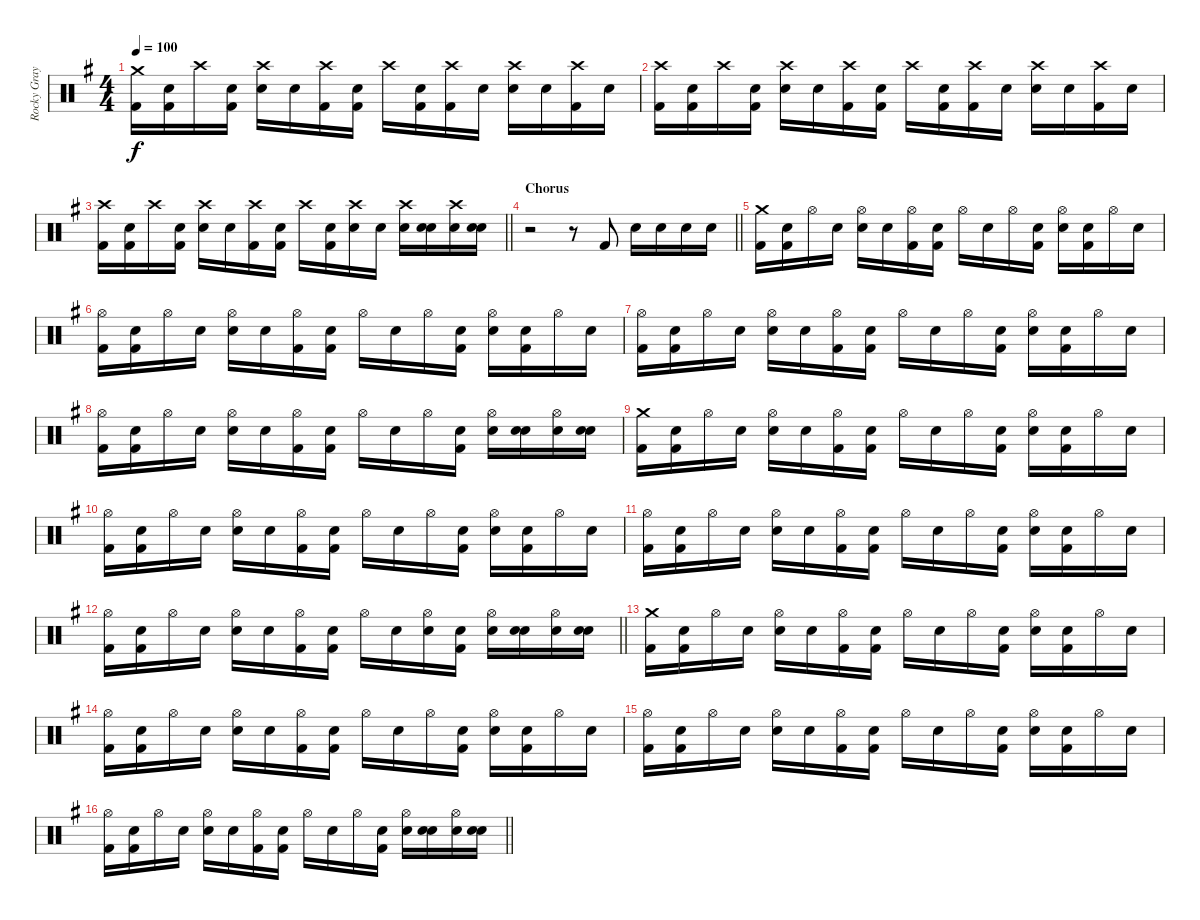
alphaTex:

\track ("Rocky Gray" "Rocky Gray") {instrument percussion}
\staff {score}
\articulation defaults
\ts (4 4)
\tempo 100
\clef neutral
\ks g
("Crash medium (hit)" "Kick (hit) 2").16{dy f} ("Snare (hit)" "Kick (hit) 2").16 "Crash high (hit)".16 ("Snare (hit)" "Kick (hit) 2").16 ("Crash high (hit)" "Electric Snare (hit)").16 "Snare (hit)".16 ("Crash high (hit)" "Kick (hit) 2").16 ("Snare (hit)" "Kick (hit) 2").16 "Crash high (hit)".16 ("Snare (hit)" "Kick (hit) 2").16 ("Crash high (hit)" "Kick (hit) 2").16 "Snare (hit)".16 ("Crash high (hit)" "Electric Snare (hit)").16 "Snare (hit)".16 ("Crash high (hit)" "Kick (hit) 2").16 "Snare (hit)".16 |
("Crash high (hit)" "Kick (hit) 2").16 ("Snare (hit)" "Kick (hit) 2").16 "Crash high (hit)".16 ("Snare (hit)" "Kick (hit) 2").16 ("Crash high (hit)" "Electric Snare (hit)").16 "Snare (hit)".16 ("Crash high (hit)" "Kick (hit) 2").16 ("Snare (hit)" "Kick (hit) 2").16 "Crash high (hit)".16 ("Snare (hit)" "Kick (hit) 2").16 ("Crash high (hit)" "Kick (hit) 2").16 "Snare (hit)".16 ("Crash high (hit)" "Electric Snare (hit)").16 "Snare (hit)".16 ("Crash high (hit)" "Kick (hit) 2").16 "Snare (hit)".16 |
\barLineRight lightlight
("Crash high (hit)" "Kick (hit) 2").16 ("Snare (hit)" "Kick (hit) 2").16 "Crash high (hit)".16 ("Snare (hit)" "Kick (hit) 2").16 ("Crash high (hit)" "Electric Snare (hit)").16 "Snare (hit)".16 ("Crash high (hit)" "Kick (hit) 2").16 ("Snare (hit)" "Kick (hit) 2").16 "Crash high (hit)".16 ("Snare (hit)" "Kick (hit) 2").16 ("Crash high (hit)" "Electric Snare (hit)").16 "Snare (hit)".16 ("Crash high (hit)" "Electric Snare (hit)").16 ("Snare (hit)" "Electric Snare (hit)").16 ("Crash high (hit)" "Electric Snare (hit)").16 ("Snare (hit)" "Electric Snare (hit)").16 |
\section ("" "Chorus")
\barLineRight lightlight
r.2 r.8 "Kick (hit) 2".8 "Electric Snare (hit)".16 "Electric Snare (hit)".16 "Electric Snare (hit)".16 "Electric Snare (hit)".16 |
("Crash medium (hit)" "Kick (hit) 2").16 ("Snare (hit)" "Kick (hit) 2").16 "Hi-Hat (open)".16 "Snare (hit)".16 ("Hi-Hat (open)" "Snare (hit) 2").16 "Snare (hit)".16 ("Hi-Hat (open)" "Kick (hit) 2").16 ("Snare (hit)" "Kick (hit) 2").16 "Hi-Hat (open)".16 "Snare (hit)".16 "Hi-Hat (open)".16 ("Snare (hit)" "Kick (hit) 2").16 ("Hi-Hat (open)" "Snare (hit) 2").16 ("Snare (hit)" "Kick (hit) 2").16 "Hi-Hat (open)".16 "Snare (hit)".16 |
("Hi-Hat (open)" "Kick (hit) 2").16 ("Snare (hit)" "Kick (hit) 2").16 "Hi-Hat (open)".16 "Snare (hit)".16 ("Hi-Hat (open)" "Snare (hit) 2").16 "Snare (hit)".16 ("Hi-Hat (open)" "Kick (hit) 2").16 ("Snare (hit)" "Kick (hit) 2").16 "Hi-Hat (open)".16 "Snare (hit)".16 "Hi-Hat (open)".16 ("Snare (hit)" "Kick (hit) 2").16 ("Hi-Hat (open)" "Snare (hit) 2").16 ("Snare (hit)" "Kick (hit) 2").16 "Hi-Hat (open)".16 "Snare (hit)".16 |
("Hi-Hat (open)" "Kick (hit) 2").16 ("Snare (hit)" "Kick (hit) 2").16 "Hi-Hat (open)".16 "Snare (hit)".16 ("Hi-Hat (open)" "Snare (hit) 2").16 "Snare (hit)".16 ("Hi-Hat (open)" "Kick (hit) 2").16 ("Snare (hit)" "Kick (hit) 2").16 "Hi-Hat (open)".16 "Snare (hit)".16 "Hi-Hat (open)".16 ("Snare (hit)" "Kick (hit) 2").16 ("Hi-Hat (open)" "Snare (hit) 2").16 ("Snare (hit)" "Kick (hit) 2").16 "Hi-Hat (open)".16 "Snare (hit)".16 |
("Hi-Hat (open)" "Kick (hit) 2").16 ("Snare (hit)" "Kick (hit) 2").16 "Hi-Hat (open)".16 "Snare (hit)".16 ("Hi-Hat (open)" "Snare (hit) 2").16 "Snare (hit)".16 ("Hi-Hat (open)" "Kick (hit) 2").16 ("Snare (hit)" "Kick (hit) 2").16 "Hi-Hat (open)".16 "Snare (hit)".16 "Hi-Hat (open)".16 ("Snare (hit)" "Kick (hit) 2").16 ("Hi-Hat (open)" "Snare (hit) 2").16 ("Snare (hit)" "Snare (hit) 2").16 ("Hi-Hat (open)" "Snare (hit) 2").16 ("Snare (hit)" "Snare (hit) 2").16 |
("Crash medium (hit)" "Kick (hit) 2").16 ("Snare (hit)" "Kick (hit) 2").16 "Hi-Hat (open)".16 "Snare (hit)".16 ("Hi-Hat (open)" "Snare (hit) 2").16 "Snare (hit)".16 ("Hi-Hat (open)" "Kick (hit) 2").16 ("Snare (hit)" "Kick (hit) 2").16 "Hi-Hat (open)".16 "Snare (hit)".16 "Hi-Hat (open)".16 ("Snare (hit)" "Kick (hit) 2").16 ("Hi-Hat (open)" "Snare (hit) 2").16 ("Snare (hit)" "Kick (hit) 2").16 "Hi-Hat (open)".16 "Snare (hit)".16 |
("Hi-Hat (open)" "Kick (hit) 2").16 ("Snare (hit)" "Kick (hit) 2").16 "Hi-Hat (open)".16 "Snare (hit)".16 ("Hi-Hat (open)" "Snare (hit) 2").16 "Snare (hit)".16 ("Hi-Hat (open)" "Kick (hit) 2").16 ("Snare (hit)" "Kick (hit) 2").16 "Hi-Hat (open)".16 "Snare (hit)".16 "Hi-Hat (open)".16 ("Snare (hit)" "Kick (hit) 2").16 ("Hi-Hat (open)" "Snare (hit) 2").16 ("Snare (hit)" "Kick (hit) 2").16 "Hi-Hat (open)".16 "Snare (hit)".16 |
("Hi-Hat (open)" "Kick (hit) 2").16 ("Snare (hit)" "Kick (hit) 2").16 "Hi-Hat (open)".16 "Snare (hit)".16 ("Hi-Hat (open)" "Snare (hit) 2").16 "Snare (hit)".16 ("Hi-Hat (open)" "Kick (hit) 2").16 ("Snare (hit)" "Kick (hit) 2").16 "Hi-Hat (open)".16 "Snare (hit)".16 "Hi-Hat (open)".16 ("Snare (hit)" "Kick (hit) 2").16 ("Hi-Hat (open)" "Snare (hit) 2").16 ("Snare (hit)" "Kick (hit) 2").16 "Hi-Hat (open)".16 "Snare (hit)".16 |
\barLineRight lightlight
("Hi-Hat (open)" "Kick (hit) 2").16 ("Snare (hit)" "Kick (hit) 2").16 "Hi-Hat (open)".16 "Snare (hit)".16 ("Hi-Hat (open)" "Snare (hit) 2").16 "Snare (hit)".16 ("Hi-Hat (open)" "Kick (hit) 2").16 ("Snare (hit)" "Kick (hit) 2").16 "Hi-Hat (open)".16 "Snare (hit)".16 ("Hi-Hat (open)" "Snare (hit) 2").16 ("Snare (hit)" "Kick (hit) 2").16 ("Hi-Hat (open)" "Snare (hit) 2").16 ("Snare (hit)" "Snare (hit) 2").16 ("Hi-Hat (open)" "Snare (hit) 2").16 ("Snare (hit)" "Snare (hit) 2").16 |
("Crash medium (hit)" "Kick (hit) 2").16 ("Snare (hit)" "Kick (hit) 2").16 "Hi-Hat (open)".16 "Snare (hit)".16 ("Hi-Hat (open)" "Snare (hit) 2").16 "Snare (hit)".16 ("Hi-Hat (open)" "Kick (hit) 2").16 ("Snare (hit)" "Kick (hit) 2").16 "Hi-Hat (open)".16 "Snare (hit)".16 "Hi-Hat (open)".16 ("Snare (hit)" "Kick (hit) 2").16 ("Hi-Hat (open)" "Snare (hit) 2").16 ("Snare (hit)" "Kick (hit) 2").16 "Hi-Hat (open)".16 "Snare (hit)".16 |
("Hi-Hat (open)" "Kick (hit) 2").16 ("Snare (hit)" "Kick (hit) 2").16 "Hi-Hat (open)".16 "Snare (hit)".16 ("Hi-Hat (open)" "Snare (hit) 2").16 "Snare (hit)".16 ("Hi-Hat (open)" "Kick (hit) 2").16 ("Snare (hit)" "Kick (hit) 2").16 "Hi-Hat (open)".16 "Snare (hit)".16 "Hi-Hat (open)".16 ("Snare (hit)" "Kick (hit) 2").16 ("Hi-Hat (open)" "Snare (hit) 2").16 ("Snare (hit)" "Kick (hit) 2").16 "Hi-Hat (open)".16 "Snare (hit)".16 |
("Hi-Hat (open)" "Kick (hit) 2").16 ("Snare (hit)" "Kick (hit) 2").16 "Hi-Hat (open)".16 "Snare (hit)".16 ("Hi-Hat (open)" "Snare (hit) 2").16 "Snare (hit)".16 ("Hi-Hat (open)" "Kick (hit) 2").16 ("Snare (hit)" "Kick (hit) 2").16 "Hi-Hat (open)".16 "Snare (hit)".16 "Hi-Hat (open)".16 ("Snare (hit)" "Kick (hit) 2").16 ("Hi-Hat (open)" "Snare (hit) 2").16 ("Snare (hit)" "Kick (hit) 2").16 "Hi-Hat (open)".16 "Snare (hit)".16 |
\barLineRight lightlight
("Hi-Hat (open)" "Kick (hit) 2").16 ("Snare (hit)" "Kick (hit) 2").16 "Hi-Hat (open)".16 "Snare (hit)".16 ("Hi-Hat (open)" "Snare (hit) 2").16 "Snare (hit)".16 ("Hi-Hat (open)" "Kick (hit) 2").16 ("Snare (hit)" "Kick (hit) 2").16 "Hi-Hat (open)".16 "Snare (hit)".16 "Hi-Hat (open)".16 ("Snare (hit)" "Kick (hit) 2").16 ("Hi-Hat (open)" "Snare (hit) 2").16 ("Snare (hit)" "Snare (hit) 2").16 ("Hi-Hat (open)" "Snare (hit) 2").16 ("Snare (hit)" "Snare (hit) 2").16
